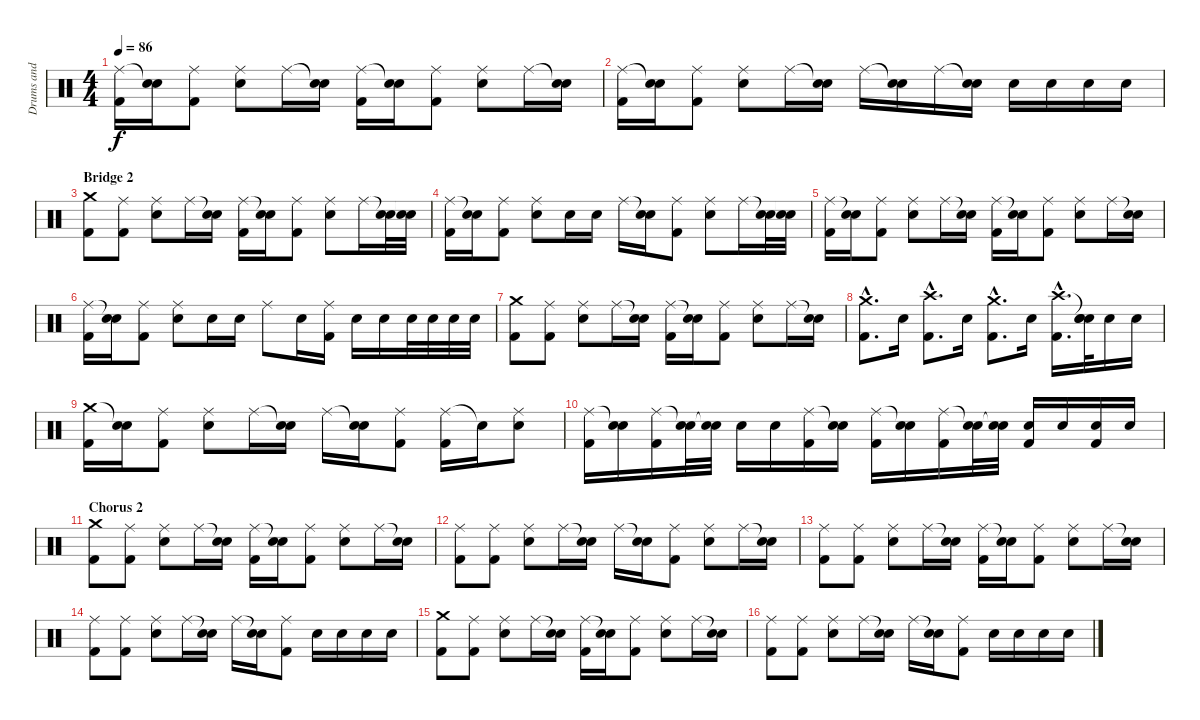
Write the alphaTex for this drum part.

\track ("Drums and Percussion" "Drums and ") {instrument percussion}
\staff {score}
\articulation defaults
\ts (4 4)
\tempo 86
\clef neutral
\ks c
("Ride (middle)" "Kick (hit) 2").16{dy f} ("Snare (hit)"{t} "Snare (hit) 2").16 ("Ride (middle)" "Kick (hit) 2").8 ("Ride (middle)" "Snare (hit) 2").8 "Ride (middle)".16 ("Snare (hit)"{t} "Snare (hit) 2").16 ("Ride (middle)" "Kick (hit) 2").16 ("Snare (hit)"{t} "Snare (hit) 2").16 ("Ride (middle)" "Kick (hit) 2").8 ("Ride (middle)" "Snare (hit) 2").8 "Ride (middle)".16 ("Snare (hit)"{t} "Snare (hit) 2").16 |
("Ride (middle)" "Kick (hit) 2").16 ("Snare (hit)"{t} "Snare (hit) 2").16 ("Ride (middle)" "Kick (hit) 2").8 ("Ride (middle)" "Snare (hit) 2").8 "Ride (middle)".16 ("Snare (hit)"{t} "Snare (hit) 2").16 "Ride (middle)".16 ("Snare (hit)"{t} "Snare (hit) 2").16 "Ride (middle)".16 ("Snare (hit)"{t} "Snare (hit) 2").16 "Snare (hit) 2".16 "Snare (hit) 2".16 "Snare (hit) 2".16 "Snare (hit) 2".16 |
\section ("" "Bridge 2")
("Crash medium (hit)" "Kick (hit) 2").8 ("Ride (middle)" "Kick (hit) 2").8 ("Ride (middle)" "Snare (hit) 2").8 "Ride (middle)".16 ("Snare (hit)"{t} "Snare (hit) 2").16 ("Ride (middle)" "Kick (hit) 2").16 ("Snare (hit)"{t} "Snare (hit) 2").16 ("Ride (middle)" "Kick (hit) 2").8 ("Ride (middle)" "Snare (hit) 2").8 "Ride (middle)".16 ("Snare (hit)"{t} "Snare (hit) 2").32 ("Snare (hit)"{t} "Snare (hit) 2").32 |
("Ride (middle)" "Kick (hit) 2").16 ("Snare (hit)"{t} "Snare (hit) 2").16 ("Ride (middle)" "Kick (hit) 2").8 ("Ride (middle)" "Snare (hit) 2").8 "Snare (hit) 2".16 "Snare (hit) 2".16 "Ride (middle)".16 ("Snare (hit)"{t} "Snare (hit) 2").16 ("Ride (middle)" "Kick (hit) 2").8 ("Ride (middle)" "Snare (hit) 2").8 "Ride (middle)".16 ("Snare (hit)"{t} "Snare (hit) 2").32 ("Snare (hit)"{t} "Snare (hit) 2").32 |
("Ride (middle)" "Kick (hit) 2").16 ("Snare (hit)"{t} "Snare (hit) 2").16 ("Ride (middle)" "Kick (hit) 2").8 ("Ride (middle)" "Snare (hit) 2").8 "Ride (middle)".16 ("Snare (hit)"{t} "Snare (hit) 2").16 ("Ride (middle)" "Kick (hit) 2").16 ("Snare (hit)"{t} "Snare (hit) 2").16 ("Ride (middle)" "Kick (hit) 2").8 ("Ride (middle)" "Snare (hit) 2").8 "Ride (middle)".16 ("Snare (hit)"{t} "Snare (hit) 2").16 |
("Ride (middle)" "Kick (hit) 2").16 ("Snare (hit)"{t} "Snare (hit) 2").16 ("Ride (middle)" "Kick (hit) 2").8 ("Ride (middle)" "Snare (hit) 2").8 "Snare (hit) 2".16 "Snare (hit) 2".16 "Ride (middle)".8 "Snare (hit) 2".16 ("Ride (middle)" "Kick (hit) 2").16 "Snare (hit) 2".16 "Snare (hit) 2".16 "Snare (hit) 2".32 "Snare (hit) 2".32 "Snare (hit) 2".32 "Snare (hit) 2".32 |
("Crash medium (hit)" "Kick (hit) 2").8 ("Ride (middle)" "Kick (hit) 2").8 ("Ride (middle)" "Snare (hit) 2").8 "Ride (middle)".16 ("Snare (hit)"{t} "Snare (hit) 2").16 ("Ride (middle)" "Kick (hit) 2").16 ("Snare (hit)"{t} "Snare (hit) 2").16 ("Ride (middle)" "Kick (hit) 2").8 ("Ride (middle)" "Snare (hit) 2").8 "Ride (middle)".16 ("Snare (hit)"{t} "Snare (hit) 2").16 |
("Crash medium (hit)"{hac} "Kick (hit) 2"{hac}).8{d} "Snare (hit) 2".16 ("Crash high (hit)"{hac} "Kick (hit) 2"{hac}).8{d} "Snare (hit) 2".16 ("Crash medium (hit)"{hac} "Kick (hit) 2"{hac}).8{d} "Snare (hit) 2".16 ("Crash high (hit)"{hac} "Kick (hit) 2"{hac}).16{d} ("Snare (hit)"{t} "Snare (hit) 2" "Snare (hit)").32 "Snare (hit) 2".16 "Snare (hit) 2".16 |
("Crash medium (hit)" "Kick (hit) 2").16 ("Snare (hit)"{t} "Snare (hit) 2").16 ("Ride (middle)" "Kick (hit) 2").8 ("Ride (middle)" "Snare (hit) 2").8 "Ride (middle)".16 ("Snare (hit)"{t} "Snare (hit) 2").16 "Ride (middle)".16 ("Snare (hit)"{t} "Snare (hit) 2").16 ("Ride (middle)" "Kick (hit) 2").8 ("Ride (middle)" "Kick (hit) 2").16 "Snare (hit)"{t}.16 ("Ride (middle)" "Snare (hit) 2").8 |
("Ride (middle)" "Kick (hit) 2").16 ("Snare (hit)"{t} "Snare (hit) 2").16 ("Ride (middle)" "Kick (hit) 2").16 ("Snare (hit)"{t} "Snare (hit) 2").32 ("Snare (hit)"{t} "Snare (hit) 2").32 "Snare (hit) 2".16 "Snare (hit) 2".16 ("Ride (middle)" "Kick (hit) 2").16 ("Snare (hit)"{t} "Snare (hit) 2").16 ("Ride (middle)" "Kick (hit) 2").16 ("Snare (hit)"{t} "Snare (hit) 2").16 ("Ride (middle)" "Kick (hit) 2").16 ("Snare (hit)"{t} "Snare (hit) 2").32 ("Snare (hit)"{t} "Snare (hit) 2").32 ("Snare (hit) 2" "Kick (hit) 2").16 "Snare (hit) 2".16 ("Snare (hit) 2" "Kick (hit) 2").16 "Snare (hit) 2".16 |
\section ("" "Chorus 2")
("Crash medium (hit)" "Kick (hit) 2").8 ("Ride (middle)" "Kick (hit) 2").8 ("Ride (middle)" "Snare (hit) 2").8 "Ride (middle)".16 ("Snare (hit)"{t} "Snare (hit) 2").16 ("Ride (middle)" "Kick (hit) 2").16 ("Snare (hit)"{t} "Snare (hit) 2").16 ("Ride (middle)" "Kick (hit) 2").8 ("Ride (middle)" "Snare (hit) 2").8 "Ride (middle)".16 ("Snare (hit)"{t} "Snare (hit) 2").16 |
("Ride (middle)" "Kick (hit) 2").8 ("Ride (middle)" "Kick (hit) 2").8 ("Ride (middle)" "Snare (hit) 2").8 "Ride (middle)".16 ("Snare (hit)"{t} "Snare (hit) 2").16 "Ride (middle)".16 ("Snare (hit)"{t} "Snare (hit) 2").16 ("Ride (middle)" "Kick (hit) 2").8 ("Ride (middle)" "Snare (hit) 2").8 "Ride (middle)".16 ("Snare (hit)"{t} "Snare (hit) 2").16 |
("Ride (middle)" "Kick (hit) 2").8 ("Ride (middle)" "Kick (hit) 2").8 ("Ride (middle)" "Snare (hit) 2").8 "Ride (middle)".16 ("Snare (hit)"{t} "Snare (hit) 2").16 ("Ride (middle)" "Kick (hit) 2").16 ("Snare (hit)"{t} "Snare (hit) 2").16 ("Ride (middle)" "Kick (hit) 2").8 ("Ride (middle)" "Snare (hit) 2").8 "Ride (middle)".16 ("Snare (hit)"{t} "Snare (hit) 2").16 |
("Ride (middle)" "Kick (hit) 2").8 ("Ride (middle)" "Kick (hit) 2").8 ("Ride (middle)" "Snare (hit) 2").8 "Ride (middle)".16 ("Snare (hit)"{t} "Snare (hit) 2").16 "Ride (middle)".16 ("Snare (hit)"{t} "Snare (hit) 2").16 ("Ride (middle)" "Kick (hit) 2").8 "Snare (hit) 2".16 "Snare (hit) 2".16 "Snare (hit) 2".16 "Snare (hit) 2".16 |
("Crash medium (hit)" "Kick (hit) 2").8 ("Ride (middle)" "Kick (hit) 2").8 ("Ride (middle)" "Snare (hit) 2").8 "Ride (middle)".16 ("Snare (hit)"{t} "Snare (hit) 2").16 ("Ride (middle)" "Kick (hit) 2").16 ("Snare (hit)"{t} "Snare (hit) 2").16 ("Ride (middle)" "Kick (hit) 2").8 ("Ride (middle)" "Snare (hit) 2").8 "Ride (middle)".16 ("Snare (hit)"{t} "Snare (hit) 2").16 |
("Ride (middle)" "Kick (hit) 2").8 ("Ride (middle)" "Kick (hit) 2").8 ("Ride (middle)" "Snare (hit) 2").8 "Ride (middle)".16 ("Snare (hit)"{t} "Snare (hit) 2").16 "Ride (middle)".16 ("Snare (hit)"{t} "Snare (hit) 2").16 ("Ride (middle)" "Kick (hit) 2").8 "Snare (hit) 2".16 "Snare (hit) 2".16 "Snare (hit) 2".16 "Snare (hit) 2".16
